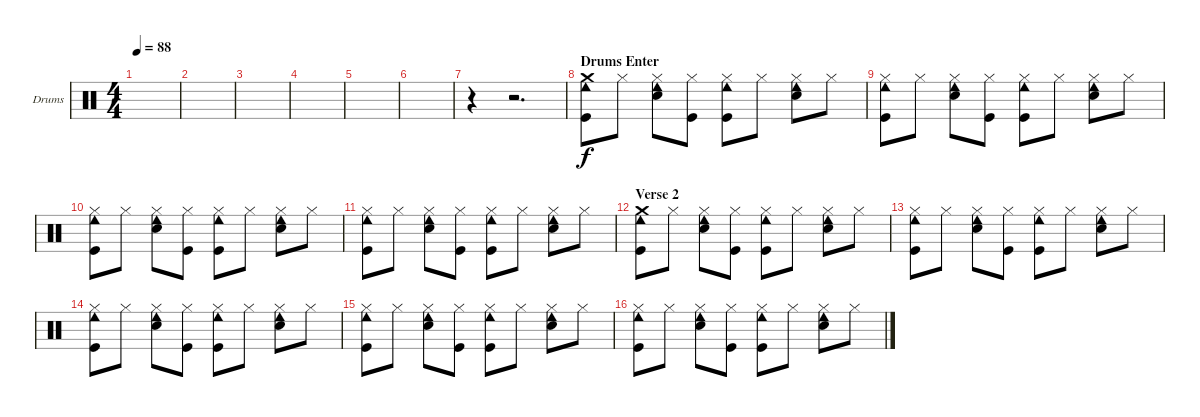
\bracketExtendMode groupsimilarinstruments
\firstSystemTrackNameOrientation horizontal
\otherSystemsTrackNameOrientation horizontal
\track ("Drumkit" "Drums") {instrument percussion}
\staff {score}
\articulation defaults
\ts (4 4)
\tempo 88
\clef neutral
\ks c
|
|
|
|
|
|
r.4 r.2{d} |
\section ("" "Drums Enter")
("Kick (hit)" "Cowbell low (hit)" "Crash medium (hit)").8 "Hi-Hat (closed)".8 ("Snare (hit) 2" "Hi-Hat (closed)" "Cowbell low (hit)").8 ("Kick (hit)" "Hi-Hat (closed)").8 ("Kick (hit)" "Cowbell low (hit)" "Hi-Hat (closed)").8 "Hi-Hat (closed)".8 ("Snare (hit) 2" "Hi-Hat (closed)" "Cowbell low (hit)").8 "Hi-Hat (closed)".8 |
("Kick (hit)" "Hi-Hat (closed)" "Cowbell low (hit)").8 "Hi-Hat (closed)".8 ("Snare (hit) 2" "Hi-Hat (closed)" "Cowbell low (hit)").8 ("Kick (hit)" "Hi-Hat (closed)").8 ("Kick (hit)" "Hi-Hat (closed)" "Cowbell low (hit)").8 "Hi-Hat (closed)".8 ("Snare (hit) 2" "Hi-Hat (closed)" "Cowbell low (hit)").8 "Hi-Hat (closed)".8 |
("Kick (hit)" "Hi-Hat (closed)" "Cowbell low (hit)").8 "Hi-Hat (closed)".8 ("Snare (hit) 2" "Hi-Hat (closed)" "Cowbell low (hit)").8 ("Kick (hit)" "Hi-Hat (closed)").8 ("Kick (hit)" "Hi-Hat (closed)" "Cowbell low (hit)").8 "Hi-Hat (closed)".8 ("Snare (hit) 2" "Hi-Hat (closed)" "Cowbell low (hit)").8 "Hi-Hat (closed)".8 |
("Kick (hit)" "Hi-Hat (closed)" "Cowbell low (hit)").8 "Hi-Hat (closed)".8 ("Snare (hit) 2" "Hi-Hat (closed)" "Cowbell low (hit)").8 ("Kick (hit)" "Hi-Hat (closed)").8 ("Kick (hit)" "Hi-Hat (closed)" "Cowbell low (hit)").8 "Hi-Hat (closed)".8 ("Snare (hit) 2" "Hi-Hat (closed)" "Cowbell low (hit)").8 "Hi-Hat (closed)".8 |
\section ("" "Verse 2")
("Kick (hit)" "Cowbell low (hit)" "Crash medium (hit)").8 "Hi-Hat (closed)".8 ("Snare (hit) 2" "Hi-Hat (closed)" "Cowbell low (hit)").8 ("Kick (hit)" "Hi-Hat (closed)").8 ("Kick (hit)" "Cowbell low (hit)" "Hi-Hat (closed)").8 "Hi-Hat (closed)".8 ("Snare (hit) 2" "Hi-Hat (closed)" "Cowbell low (hit)").8 "Hi-Hat (closed)".8 |
("Kick (hit)" "Hi-Hat (closed)" "Cowbell low (hit)").8 "Hi-Hat (closed)".8 ("Snare (hit) 2" "Hi-Hat (closed)" "Cowbell low (hit)").8 ("Kick (hit)" "Hi-Hat (closed)").8 ("Kick (hit)" "Hi-Hat (closed)" "Cowbell low (hit)").8 "Hi-Hat (closed)".8 ("Snare (hit) 2" "Hi-Hat (closed)" "Cowbell low (hit)").8 "Hi-Hat (closed)".8 |
("Kick (hit)" "Hi-Hat (closed)" "Cowbell low (hit)").8 "Hi-Hat (closed)".8 ("Snare (hit) 2" "Hi-Hat (closed)" "Cowbell low (hit)").8 ("Kick (hit)" "Hi-Hat (closed)").8 ("Kick (hit)" "Hi-Hat (closed)" "Cowbell low (hit)").8 "Hi-Hat (closed)".8 ("Snare (hit) 2" "Hi-Hat (closed)" "Cowbell low (hit)").8 "Hi-Hat (closed)".8 |
("Kick (hit)" "Hi-Hat (closed)" "Cowbell low (hit)").8 "Hi-Hat (closed)".8 ("Snare (hit) 2" "Hi-Hat (closed)" "Cowbell low (hit)").8 ("Kick (hit)" "Hi-Hat (closed)").8 ("Kick (hit)" "Hi-Hat (closed)" "Cowbell low (hit)").8 "Hi-Hat (closed)".8 ("Snare (hit) 2" "Hi-Hat (closed)" "Cowbell low (hit)").8 "Hi-Hat (closed)".8 |
("Kick (hit)" "Hi-Hat (closed)" "Cowbell low (hit)").8 "Hi-Hat (closed)".8 ("Snare (hit) 2" "Hi-Hat (closed)" "Cowbell low (hit)").8 ("Kick (hit)" "Hi-Hat (closed)").8 ("Kick (hit)" "Hi-Hat (closed)" "Cowbell low (hit)").8 "Hi-Hat (closed)".8 ("Snare (hit) 2" "Hi-Hat (closed)" "Cowbell low (hit)").8 "Hi-Hat (closed)".8
